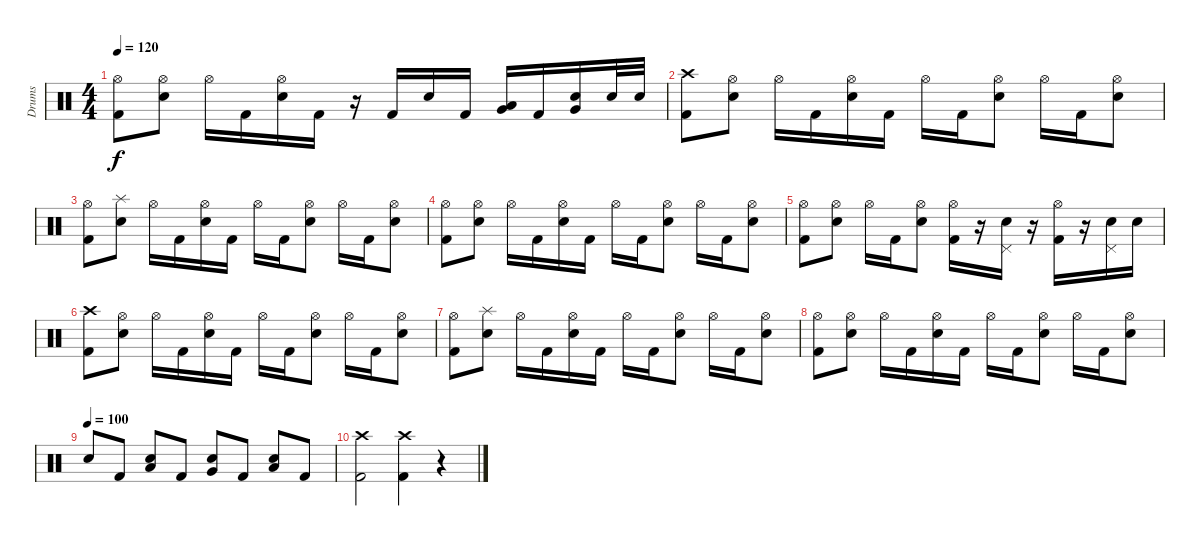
\track ("Drums" "Drums") {instrument percussion}
\staff {score}
\articulation defaults
\ts (4 4)
\tempo 120
\clef neutral
\ks c
("Hi-Hat (open)" "Kick (hit) 2").8{dy f} ("Hi-Hat (open)" "Electric Snare (hit)").8 "Hi-Hat (open)".16 "Kick (hit) 2".16 ("Hi-Hat (open)" "Electric Snare (hit)").16 "Kick (hit) 2".16 r.16 "Kick (hit) 2".16 "Electric Snare (hit)".16 "Kick (hit) 2".16 ("Low Floor Tom (hit)" "Very Low Tom (hit)").16 "Kick (hit) 2".16 ("Electric Snare (hit)" "Very Low Tom (hit)").16 "Electric Snare (hit)".32 "Electric Snare (hit)".32 |
("Crash high (hit)" "Kick (hit) 2").8 ("Hi-Hat (open)" "Electric Snare (hit)").8 "Hi-Hat (open)".16 "Kick (hit) 2".16 ("Hi-Hat (open)" "Electric Snare (hit)").16 "Kick (hit) 2".16 "Hi-Hat (open)".16 "Kick (hit) 2".16 ("Hi-Hat (open)" "Electric Snare (hit)").8 "Hi-Hat (open)".16 "Kick (hit) 2".16 ("Hi-Hat (open)" "Electric Snare (hit)").8 |
("Hi-Hat (open)" "Kick (hit) 2").8 ("Splash (hit)" "Electric Snare (hit)").8 "Hi-Hat (open)".16 "Kick (hit) 2".16 ("Hi-Hat (open)" "Electric Snare (hit)").16 "Kick (hit) 2".16 "Hi-Hat (open)".16 "Kick (hit) 2".16 ("Hi-Hat (open)" "Electric Snare (hit)").8 "Hi-Hat (open)".16 "Kick (hit) 2".16 ("Hi-Hat (open)" "Electric Snare (hit)").8 |
("Hi-Hat (open)" "Kick (hit) 2").8 ("Hi-Hat (open)" "Electric Snare (hit)").8 "Hi-Hat (open)".16 "Kick (hit) 2".16 ("Hi-Hat (open)" "Electric Snare (hit)").16 "Kick (hit) 2".16 "Hi-Hat (open)".16 "Kick (hit) 2".16 ("Hi-Hat (open)" "Electric Snare (hit)").8 "Hi-Hat (open)".16 "Kick (hit) 2".16 ("Hi-Hat (open)" "Electric Snare (hit)").8 |
("Hi-Hat (open)" "Kick (hit) 2").8 ("Hi-Hat (open)" "Electric Snare (hit)").8 "Hi-Hat (open)".16 "Kick (hit) 2".16 ("Hi-Hat (open)" "Electric Snare (hit)").8 ("Hi-Hat (open)" "Kick (hit) 2").16 r.16 ("Pedal Hi-Hat (hit)" "Electric Snare (hit)").16 r.16 ("Hi-Hat (open)" "Kick (hit) 2").16 r.16 ("Pedal Hi-Hat (hit)" "Electric Snare (hit)").16 "Electric Snare (hit)".16 |
("Crash high (hit)" "Kick (hit) 2").8 ("Hi-Hat (open)" "Electric Snare (hit)").8 "Hi-Hat (open)".16 "Kick (hit) 2".16 ("Hi-Hat (open)" "Electric Snare (hit)").16 "Kick (hit) 2".16 "Hi-Hat (open)".16 "Kick (hit) 2".16 ("Hi-Hat (open)" "Electric Snare (hit)").8 "Hi-Hat (open)".16 "Kick (hit) 2".16 ("Hi-Hat (open)" "Electric Snare (hit)").8 |
("Hi-Hat (open)" "Kick (hit) 2").8 ("Splash (hit)" "Electric Snare (hit)").8 "Hi-Hat (open)".16 "Kick (hit) 2".16 ("Hi-Hat (open)" "Electric Snare (hit)").16 "Kick (hit) 2".16 "Hi-Hat (open)".16 "Kick (hit) 2".16 ("Hi-Hat (open)" "Electric Snare (hit)").8 "Hi-Hat (open)".16 "Kick (hit) 2".16 ("Hi-Hat (open)" "Electric Snare (hit)").8 |
("Hi-Hat (open)" "Kick (hit) 2").8 ("Hi-Hat (open)" "Electric Snare (hit)").8 "Hi-Hat (open)".16 "Kick (hit) 2".16 ("Hi-Hat (open)" "Electric Snare (hit)").16 "Kick (hit) 2".16 "Hi-Hat (open)".16 "Kick (hit) 2".16 ("Hi-Hat (open)" "Electric Snare (hit)").8 "Hi-Hat (open)".16 "Kick (hit) 2".16 ("Hi-Hat (open)" "Electric Snare (hit)").8 |
\tempo (100)
"Electric Snare (hit)".8 "Kick (hit) 2".8 ("Electric Snare (hit)" "Low Tom (hit)").8 "Kick (hit) 2".8 ("Electric Snare (hit)" "Very Low Tom (hit)").8 "Kick (hit) 2".8 ("Electric Snare (hit)" "Low Floor Tom (hit)").8 "Kick (hit) 2".8 |
("Crash high (hit)" "Kick (hit) 2").2 ("Crash high (hit)" "Kick (hit) 2").4 r.4
